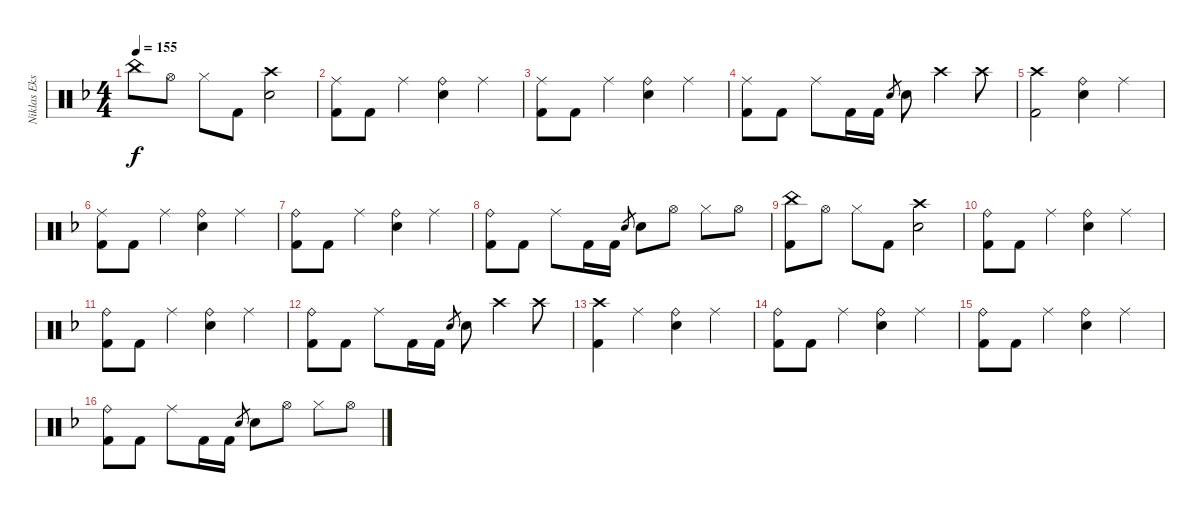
\track ("Niklas Ekstrand" "Niklas Eks") {instrument percussion}
\staff {score}
\articulation defaults
\ts (4 4)
\tempo 155
\clef neutral
\ks dminor "China (hit)".8{dy f} "Hi-Hat (open)".8 "Hi-Hat (closed)".8 "Kick (hit) 2".8
("Crash high (hit)" "Snare (hit) 2").2 |
("Ride (middle)" "Kick (hit) 2").8 "Kick (hit) 2".8 "Ride (middle)".4 ("Ride (bell)" "Snare (hit) 2").4 "Ride (middle)".4 |
("Ride (middle)" "Kick (hit) 2").8 "Kick (hit) 2".8 "Ride (middle)".4 ("Ride (bell)" "Snare (hit) 2").4 "Ride (middle)".4 |
("Ride (middle)" "Kick (hit) 2").8 "Kick (hit) 2".8 "Ride (middle)".8 "Kick (hit) 2".16 "Kick (hit) 2".16 "Snare (hit) 2".8{gr} "Snare (hit) 2".8 "Crash high (hit)".4 "Crash high (hit)".8 |
("Crash high (hit)" "Kick (hit) 2").2 ("Ride (bell)" "Snare (hit) 2").4 "Ride (middle)".4 |
("Ride (middle)" "Kick (hit) 2").8 "Kick (hit) 2".8 "Ride (middle)".4 ("Ride (bell)" "Snare (hit) 2").4 "Ride (middle)".4 |
("Ride (bell)" "Kick (hit) 2").8 "Kick (hit) 2".8 "Ride (middle)".4 ("Ride (bell)" "Snare (hit) 2").4 "Ride (middle)".4 |
("Ride (bell)" "Kick (hit) 2").8 "Kick (hit) 2".8 "Ride (middle)".8 "Kick (hit) 2".16 "Kick (hit) 2".16 "Snare (hit) 2".8{gr} "Snare (hit) 2".8 "Hi-Hat (open)".8 "Hi-Hat (closed)".8 "Hi-Hat (open)".8 |
("China (hit)" "Kick (hit) 2").8 "Hi-Hat (open)".8 "Hi-Hat (closed)".8 "Kick (hit) 2".8 ("Crash high (hit)" "Snare (hit) 2").2 |
("Ride (bell)" "Kick (hit) 2").8 "Kick (hit) 2".8 "Ride (middle)".4 ("Ride (bell)" "Snare (hit) 2").4 "Ride (middle)".4 |
("Ride (bell)" "Kick (hit) 2").8 "Kick (hit) 2".8 "Ride (middle)".4 ("Ride (bell)" "Snare (hit) 2").4 "Ride (middle)".4 |
("Ride (bell)" "Kick (hit) 2").8 "Kick (hit) 2".8 "Ride (middle)".8 "Kick (hit) 2".16 "Kick (hit) 2".16 "Snare (hit) 2".8{gr} "Snare (hit) 2".8 "Crash high (hit)".4 "Crash high (hit)".8 |
("Crash high (hit)" "Kick (hit) 2").4 "Ride (middle)".4 ("Ride (bell)" "Snare (hit) 2").4 "Ride (middle)".4 |
("Ride (bell)" "Kick (hit) 2").8 "Kick (hit) 2".8 "Ride (middle)".4 ("Ride (bell)" "Snare (hit) 2").4 "Ride (middle)".4 |
("Ride (bell)" "Kick (hit) 2").8 "Kick (hit) 2".8 "Ride (middle)".4 ("Ride (bell)" "Snare (hit) 2").4 "Ride (middle)".4 |
("Ride (bell)" "Kick (hit) 2").8 "Kick (hit) 2".8 "Ride (middle)".8 "Kick (hit) 2".16 "Kick (hit) 2".16 "Snare (hit) 2".8{gr} "Snare (hit) 2".8 "Hi-Hat (open)".8 "Hi-Hat (closed)".8 "Hi-Hat (open)".8
